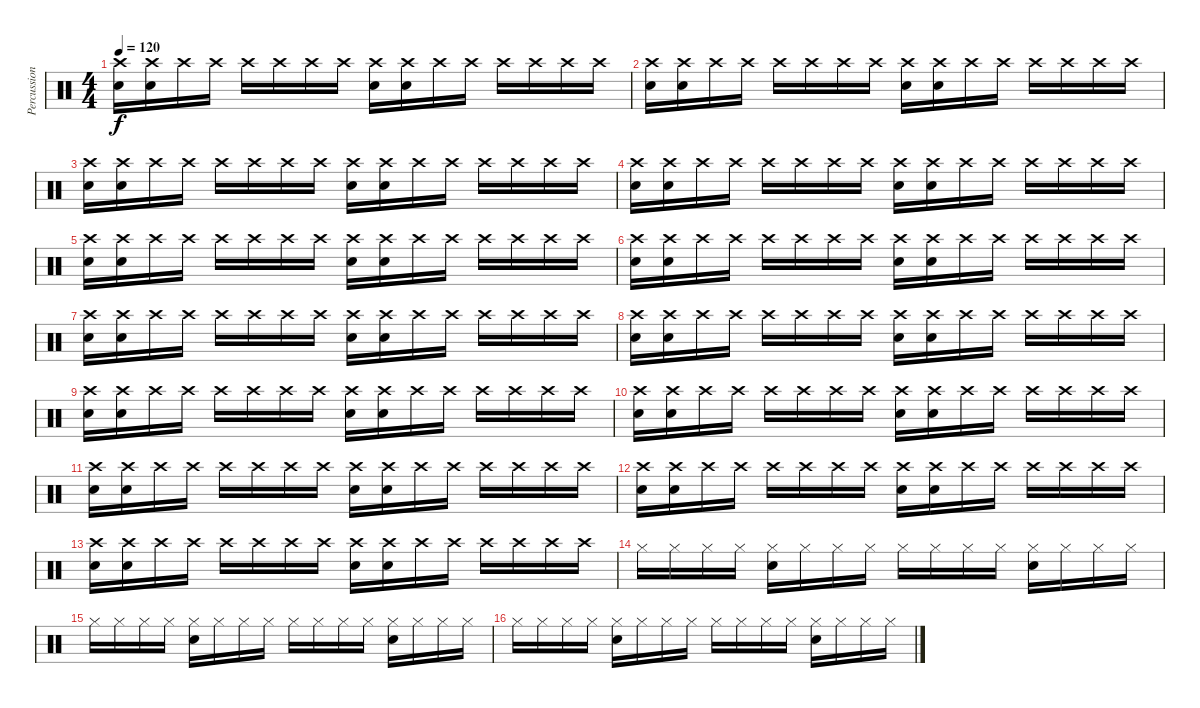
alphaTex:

\track ("Percussion" "Percussion") {instrument percussion}
\staff {score}
\articulation defaults
\ts (4 4)
\tempo 120
\clef neutral
\ks c
("Crash high (hit)" "Electric Snare (hit)").16{dy f} ("Crash high (hit)" "Electric Snare (hit)").16 "Crash high (hit)".16 "Crash high (hit)".16 "Crash high (hit)".16 "Crash high (hit)".16 "Crash high (hit)".16 "Crash high (hit)".16 ("Crash high (hit)" "Electric Snare (hit)").16 ("Crash high (hit)" "Electric Snare (hit)").16 "Crash high (hit)".16 "Crash high (hit)".16 "Crash high (hit)".16 "Crash high (hit)".16 "Crash high (hit)".16 "Crash high (hit)".16 |
("Crash high (hit)" "Electric Snare (hit)").16 ("Crash high (hit)" "Electric Snare (hit)").16 "Crash high (hit)".16 "Crash high (hit)".16 "Crash high (hit)".16 "Crash high (hit)".16 "Crash high (hit)".16 "Crash high (hit)".16 ("Crash high (hit)" "Electric Snare (hit)").16 ("Crash high (hit)" "Electric Snare (hit)").16 "Crash high (hit)".16 "Crash high (hit)".16 "Crash high (hit)".16 "Crash high (hit)".16 "Crash high (hit)".16 "Crash high (hit)".16 |
("Crash high (hit)" "Electric Snare (hit)").16 ("Crash high (hit)" "Electric Snare (hit)").16 "Crash high (hit)".16 "Crash high (hit)".16 "Crash high (hit)".16 "Crash high (hit)".16 "Crash high (hit)".16 "Crash high (hit)".16 ("Crash high (hit)" "Electric Snare (hit)").16 ("Crash high (hit)" "Electric Snare (hit)").16 "Crash high (hit)".16 "Crash high (hit)".16 "Crash high (hit)".16 "Crash high (hit)".16 "Crash high (hit)".16 "Crash high (hit)".16 |
("Crash high (hit)" "Electric Snare (hit)").16 ("Crash high (hit)" "Electric Snare (hit)").16 "Crash high (hit)".16 "Crash high (hit)".16 "Crash high (hit)".16 "Crash high (hit)".16 "Crash high (hit)".16 "Crash high (hit)".16 ("Crash high (hit)" "Electric Snare (hit)").16 ("Crash high (hit)" "Electric Snare (hit)").16 "Crash high (hit)".16 "Crash high (hit)".16 "Crash high (hit)".16 "Crash high (hit)".16 "Crash high (hit)".16 "Crash high (hit)".16 |
("Crash high (hit)" "Electric Snare (hit)").16 ("Crash high (hit)" "Electric Snare (hit)").16 "Crash high (hit)".16 "Crash high (hit)".16 "Crash high (hit)".16 "Crash high (hit)".16 "Crash high (hit)".16 "Crash high (hit)".16 ("Crash high (hit)" "Electric Snare (hit)").16 ("Crash high (hit)" "Electric Snare (hit)").16 "Crash high (hit)".16 "Crash high (hit)".16 "Crash high (hit)".16 "Crash high (hit)".16 "Crash high (hit)".16 "Crash high (hit)".16 |
("Crash high (hit)" "Electric Snare (hit)").16 ("Crash high (hit)" "Electric Snare (hit)").16 "Crash high (hit)".16 "Crash high (hit)".16 "Crash high (hit)".16 "Crash high (hit)".16 "Crash high (hit)".16 "Crash high (hit)".16 ("Crash high (hit)" "Electric Snare (hit)").16 ("Crash high (hit)" "Electric Snare (hit)").16 "Crash high (hit)".16 "Crash high (hit)".16 "Crash high (hit)".16 "Crash high (hit)".16 "Crash high (hit)".16 "Crash high (hit)".16 |
("Crash high (hit)" "Electric Snare (hit)").16 ("Crash high (hit)" "Electric Snare (hit)").16 "Crash high (hit)".16 "Crash high (hit)".16 "Crash high (hit)".16 "Crash high (hit)".16 "Crash high (hit)".16 "Crash high (hit)".16 ("Crash high (hit)" "Electric Snare (hit)").16 ("Crash high (hit)" "Electric Snare (hit)").16 "Crash high (hit)".16 "Crash high (hit)".16 "Crash high (hit)".16 "Crash high (hit)".16 "Crash high (hit)".16 "Crash high (hit)".16 |
("Crash high (hit)" "Electric Snare (hit)").16 ("Crash high (hit)" "Electric Snare (hit)").16 "Crash high (hit)".16 "Crash high (hit)".16 "Crash high (hit)".16 "Crash high (hit)".16 "Crash high (hit)".16 "Crash high (hit)".16 ("Crash high (hit)" "Electric Snare (hit)").16 ("Crash high (hit)" "Electric Snare (hit)").16 "Crash high (hit)".16 "Crash high (hit)".16 "Crash high (hit)".16 "Crash high (hit)".16 "Crash high (hit)".16 "Crash high (hit)".16 |
("Crash high (hit)" "Electric Snare (hit)").16 ("Crash high (hit)" "Electric Snare (hit)").16 "Crash high (hit)".16 "Crash high (hit)".16 "Crash high (hit)".16 "Crash high (hit)".16 "Crash high (hit)".16 "Crash high (hit)".16 ("Crash high (hit)" "Electric Snare (hit)").16 ("Crash high (hit)" "Electric Snare (hit)").16 "Crash high (hit)".16 "Crash high (hit)".16 "Crash high (hit)".16 "Crash high (hit)".16 "Crash high (hit)".16 "Crash high (hit)".16 |
("Crash high (hit)" "Electric Snare (hit)").16 ("Crash high (hit)" "Electric Snare (hit)").16 "Crash high (hit)".16 "Crash high (hit)".16 "Crash high (hit)".16 "Crash high (hit)".16 "Crash high (hit)".16 "Crash high (hit)".16 ("Crash high (hit)" "Electric Snare (hit)").16 ("Crash high (hit)" "Electric Snare (hit)").16 "Crash high (hit)".16 "Crash high (hit)".16 "Crash high (hit)".16 "Crash high (hit)".16 "Crash high (hit)".16 "Crash high (hit)".16 |
("Crash high (hit)" "Electric Snare (hit)").16 ("Crash high (hit)" "Electric Snare (hit)").16 "Crash high (hit)".16 "Crash high (hit)".16 "Crash high (hit)".16 "Crash high (hit)".16 "Crash high (hit)".16 "Crash high (hit)".16 ("Crash high (hit)" "Electric Snare (hit)").16 ("Crash high (hit)" "Electric Snare (hit)").16 "Crash high (hit)".16 "Crash high (hit)".16 "Crash high (hit)".16 "Crash high (hit)".16 "Crash high (hit)".16 "Crash high (hit)".16 |
("Crash high (hit)" "Electric Snare (hit)").16 ("Crash high (hit)" "Electric Snare (hit)").16 "Crash high (hit)".16 "Crash high (hit)".16 "Crash high (hit)".16 "Crash high (hit)".16 "Crash high (hit)".16 "Crash high (hit)".16 ("Crash high (hit)" "Electric Snare (hit)").16 ("Crash high (hit)" "Electric Snare (hit)").16 "Crash high (hit)".16 "Crash high (hit)".16 "Crash high (hit)".16 "Crash high (hit)".16 "Crash high (hit)".16 "Crash high (hit)".16 |
("Crash high (hit)" "Electric Snare (hit)").16 ("Crash high (hit)" "Electric Snare (hit)").16 "Crash high (hit)".16 "Crash high (hit)".16 "Crash high (hit)".16 "Crash high (hit)".16 "Crash high (hit)".16 "Crash high (hit)".16 ("Crash high (hit)" "Electric Snare (hit)").16 ("Crash high (hit)" "Electric Snare (hit)").16 "Crash high (hit)".16 "Crash high (hit)".16 "Crash high (hit)".16 "Crash high (hit)".16 "Crash high (hit)".16 "Crash high (hit)".16 |
"Hi-Hat (closed)".16 "Hi-Hat (closed)".16 "Hi-Hat (closed)".16 "Hi-Hat (closed)".16 ("Hi-Hat (closed)" "Electric Snare (hit)").16 "Hi-Hat (closed)".16 "Hi-Hat (closed)".16 "Hi-Hat (closed)".16 "Hi-Hat (closed)".16 "Hi-Hat (closed)".16 "Hi-Hat (closed)".16 "Hi-Hat (closed)".16 ("Hi-Hat (closed)" "Electric Snare (hit)").16 "Hi-Hat (closed)".16 "Hi-Hat (closed)".16 "Hi-Hat (closed)".16 |
"Hi-Hat (closed)".16 "Hi-Hat (closed)".16 "Hi-Hat (closed)".16 "Hi-Hat (closed)".16 ("Hi-Hat (closed)" "Electric Snare (hit)").16 "Hi-Hat (closed)".16 "Hi-Hat (closed)".16 "Hi-Hat (closed)".16 "Hi-Hat (closed)".16 "Hi-Hat (closed)".16 "Hi-Hat (closed)".16 "Hi-Hat (closed)".16 ("Hi-Hat (closed)" "Electric Snare (hit)").16 "Hi-Hat (closed)".16 "Hi-Hat (closed)".16 "Hi-Hat (closed)".16 |
"Hi-Hat (closed)".16 "Hi-Hat (closed)".16 "Hi-Hat (closed)".16 "Hi-Hat (closed)".16 ("Hi-Hat (closed)" "Electric Snare (hit)").16 "Hi-Hat (closed)".16 "Hi-Hat (closed)".16 "Hi-Hat (closed)".16 "Hi-Hat (closed)".16 "Hi-Hat (closed)".16 "Hi-Hat (closed)".16 "Hi-Hat (closed)".16 ("Hi-Hat (closed)" "Electric Snare (hit)").16 "Hi-Hat (closed)".16 "Hi-Hat (closed)".16 "Hi-Hat (closed)".16
